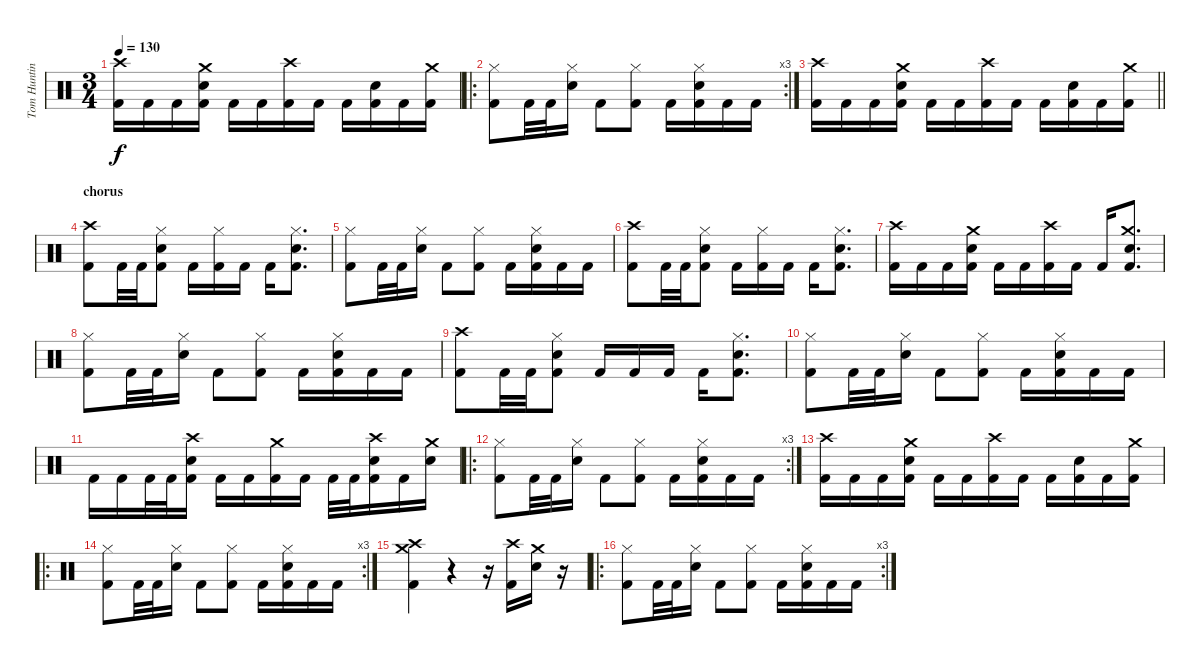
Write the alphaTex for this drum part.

\track ("Tom Hunting" "Tom Huntin") {instrument percussion}
\staff {score}
\articulation defaults
\ts (3 4)
\tempo 130
\clef neutral
\ks c
("Crash high (hit)" "Kick (hit) 2").16{dy f} "Kick (hit) 2".16 "Kick (hit) 2".16 ("Crash medium (hit)" "Electric Snare (hit)" "Kick (hit) 2").16 "Kick (hit) 2".16 "Kick (hit) 2".16 ("Crash high (hit)" "Kick (hit) 2").16 "Kick (hit) 2".16 "Kick (hit) 2".16 ("Electric Snare (hit)" "Kick (hit) 2").16 "Kick (hit) 2".16 ("Crash medium (hit)" "Kick (hit) 2").16 |
\ro
\rc 3
("Hi-Hat (closed)" "Kick (hit) 2").8 "Kick (hit) 2".32 "Kick (hit) 2".32 ("Hi-Hat (closed)" "Electric Snare (hit)").16 "Kick (hit) 2".8 ("Hi-Hat (closed)" "Kick (hit) 2").8 "Kick (hit) 2".16 ("Hi-Hat (closed)" "Electric Snare (hit)" "Kick (hit) 2").16 "Kick (hit) 2".16 "Kick (hit) 2".16 |
\barLineRight lightlight
("Crash high (hit)" "Kick (hit) 2").16 "Kick (hit) 2".16 "Kick (hit) 2".16 ("Crash medium (hit)" "Electric Snare (hit)" "Kick (hit) 2").16 "Kick (hit) 2".16 "Kick (hit) 2".16 ("Crash high (hit)" "Kick (hit) 2").16 "Kick (hit) 2".16 "Kick (hit) 2".16 ("Electric Snare (hit)" "Kick (hit) 2").16 "Kick (hit) 2".16 ("Crash medium (hit)" "Kick (hit) 2").16 |
\section ("" "chorus")
("Crash high (hit)" "Kick (hit) 2").8 "Kick (hit) 2".32 "Kick (hit) 2".32 ("Hi-Hat (closed)" "Electric Snare (hit)" "Kick (hit) 2").8 "Kick (hit) 2".16 ("Hi-Hat (closed)" "Kick (hit) 2").16 "Kick (hit) 2".16 "Kick (hit) 2".16 ("Hi-Hat (closed)" "Electric Snare (hit)" "Kick (hit) 2").8{d} |
("Hi-Hat (closed)" "Kick (hit) 2").8 "Kick (hit) 2".32 "Kick (hit) 2".32 ("Hi-Hat (closed)" "Electric Snare (hit)").16 "Kick (hit) 2".8 ("Hi-Hat (closed)" "Kick (hit) 2").8 "Kick (hit) 2".16 ("Hi-Hat (closed)" "Electric Snare (hit)" "Kick (hit) 2").16 "Kick (hit) 2".16 "Kick (hit) 2".16 |
("Crash high (hit)" "Kick (hit) 2").8 "Kick (hit) 2".32 "Kick (hit) 2".32 ("Hi-Hat (closed)" "Electric Snare (hit)" "Kick (hit) 2").8 "Kick (hit) 2".16 ("Hi-Hat (closed)" "Kick (hit) 2").16 "Kick (hit) 2".16 "Kick (hit) 2".16 ("Hi-Hat (closed)" "Electric Snare (hit)" "Kick (hit) 2").8{d} |
("Crash high (hit)" "Kick (hit) 2").16 "Kick (hit) 2".16 "Kick (hit) 2".16 ("Crash medium (hit)" "Electric Snare (hit)" "Kick (hit) 2").16 "Kick (hit) 2".16 "Kick (hit) 2".16 ("Crash high (hit)" "Kick (hit) 2").16 "Kick (hit) 2".16 "Kick (hit) 2".16 ("Crash medium (hit)" "Electric Snare (hit)" "Kick (hit) 2").8{d} |
("Hi-Hat (closed)" "Kick (hit) 2").8 "Kick (hit) 2".32 "Kick (hit) 2".32 ("Hi-Hat (closed)" "Electric Snare (hit)").16 "Kick (hit) 2".8 ("Hi-Hat (closed)" "Kick (hit) 2").8 "Kick (hit) 2".16 ("Hi-Hat (closed)" "Electric Snare (hit)" "Kick (hit) 2").16 "Kick (hit) 2".16 "Kick (hit) 2".16 |
("Crash high (hit)" "Kick (hit) 2").8 "Kick (hit) 2".32 "Kick (hit) 2".32 ("Hi-Hat (closed)" "Electric Snare (hit)" "Kick (hit) 2").8 "Kick (hit) 2".16 "Kick (hit) 2".16 "Kick (hit) 2".16 "Kick (hit) 2".16 ("Hi-Hat (closed)" "Electric Snare (hit)" "Kick (hit) 2").8{d} |
("Hi-Hat (closed)" "Kick (hit) 2").8 "Kick (hit) 2".32 "Kick (hit) 2".32 ("Hi-Hat (closed)" "Electric Snare (hit)").16 "Kick (hit) 2".8 ("Hi-Hat (closed)" "Kick (hit) 2").8 "Kick (hit) 2".16 ("Hi-Hat (closed)" "Electric Snare (hit)" "Kick (hit) 2").16 "Kick (hit) 2".16 "Kick (hit) 2".16 |
"Kick (hit) 2".16 "Kick (hit) 2".16 "Kick (hit) 2".32 "Kick (hit) 2".32 ("Crash high (hit)" "Electric Snare (hit)" "Kick (hit) 2").16 "Kick (hit) 2".16 "Kick (hit) 2".16 ("Crash medium (hit)" "Kick (hit) 2").16 "Kick (hit) 2".16 "Kick (hit) 2".32 "Kick (hit) 2".32 ("Crash high (hit)" "Electric Snare (hit)" "Kick (hit) 2").16 "Kick (hit) 2".16 ("Crash medium (hit)" "Electric Snare (hit)").16 |
\ro
\rc 3
("Hi-Hat (closed)" "Kick (hit) 2").8 "Kick (hit) 2".32 "Kick (hit) 2".32 ("Hi-Hat (closed)" "Electric Snare (hit)").16 "Kick (hit) 2".8 ("Hi-Hat (closed)" "Kick (hit) 2").8 "Kick (hit) 2".16 ("Hi-Hat (closed)" "Electric Snare (hit)" "Kick (hit) 2").16 "Kick (hit) 2".16 "Kick (hit) 2".16 |
("Crash high (hit)" "Kick (hit) 2").16 "Kick (hit) 2".16 "Kick (hit) 2".16 ("Crash medium (hit)" "Electric Snare (hit)" "Kick (hit) 2").16 "Kick (hit) 2".16 "Kick (hit) 2".16 ("Crash high (hit)" "Kick (hit) 2").16 "Kick (hit) 2".16 "Kick (hit) 2".16 ("Electric Snare (hit)" "Kick (hit) 2").16 "Kick (hit) 2".16 ("Crash medium (hit)" "Kick (hit) 2").16 |
\ro
\rc 3
("Hi-Hat (closed)" "Kick (hit) 2").8 "Kick (hit) 2".32 "Kick (hit) 2".32 ("Hi-Hat (closed)" "Electric Snare (hit)").16 "Kick (hit) 2".8 ("Hi-Hat (closed)" "Kick (hit) 2").8 "Kick (hit) 2".16 ("Hi-Hat (closed)" "Electric Snare (hit)" "Kick (hit) 2").16 "Kick (hit) 2".16 "Kick (hit) 2".16 |
("Crash medium (hit)" "Crash high (hit)" "Kick (hit) 2").4 r.4 r.16 ("Crash high (hit)" "Kick (hit) 2").16 ("Crash medium (hit)" "Electric Snare (hit)").16 r.16 |
\ro
\rc 3
("Hi-Hat (closed)" "Kick (hit) 2").8 "Kick (hit) 2".32 "Kick (hit) 2".32 ("Hi-Hat (closed)" "Electric Snare (hit)").16 "Kick (hit) 2".8 ("Hi-Hat (closed)" "Kick (hit) 2").8 "Kick (hit) 2".16 ("Hi-Hat (closed)" "Electric Snare (hit)" "Kick (hit) 2").16 "Kick (hit) 2".16 "Kick (hit) 2".16
